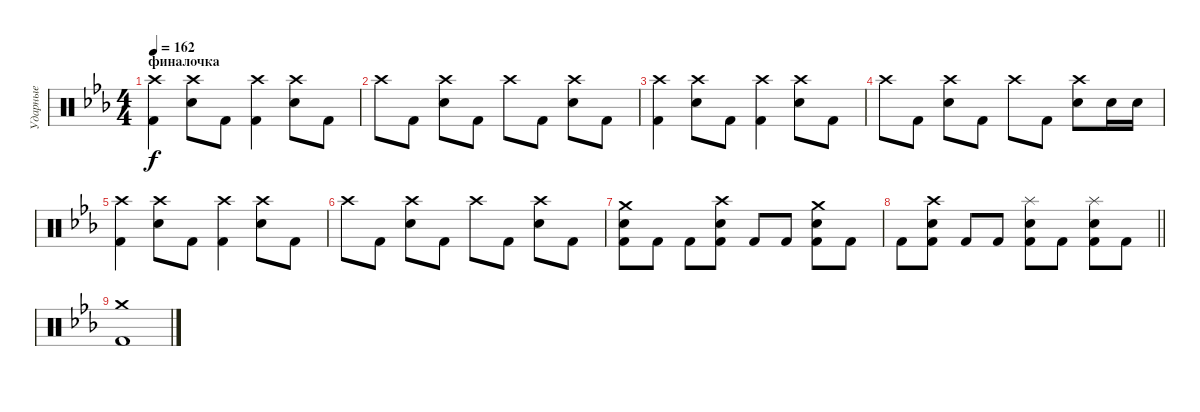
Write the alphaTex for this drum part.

\track ("Ударные" "Ударные") {instrument percussion}
\staff {score}
\articulation defaults
\ts (4 4)
\section ("" "финалочка")
\tempo 162
\clef neutral
\ks cminor
("Crash high (hit)" "Kick (hit) 2").4{dy f} ("Crash high (hit)" "Snare (hit) 2").8 "Kick (hit) 2".8 ("Crash high (hit)" "Kick (hit) 2").4 ("Crash high (hit)" "Snare (hit) 2").8 "Kick (hit) 2".8 |
"Crash high (hit)".8 "Kick (hit) 2".8 ("Crash high (hit)" "Snare (hit) 2").8 "Kick (hit) 2".8 "Crash high (hit)".8 "Kick (hit) 2".8 ("Crash high (hit)" "Snare (hit) 2").8 "Kick (hit) 2".8 |
("Crash high (hit)" "Kick (hit) 2").4 ("Crash high (hit)" "Snare (hit) 2").8 "Kick (hit) 2".8 ("Crash high (hit)" "Kick (hit) 2").4 ("Crash high (hit)" "Snare (hit) 2").8 "Kick (hit) 2".8 |
"Crash high (hit)".8 "Kick (hit) 2".8 ("Crash high (hit)" "Snare (hit) 2").8 "Kick (hit) 2".8 "Crash high (hit)".8 "Kick (hit) 2".8 ("Crash high (hit)" "Snare (hit) 2").8 "Snare (hit) 2".16 "Snare (hit) 2".16 |
("Crash high (hit)" "Kick (hit) 2").4 ("Crash high (hit)" "Snare (hit) 2").8 "Kick (hit) 2".8 ("Crash high (hit)" "Kick (hit) 2").4 ("Crash high (hit)" "Snare (hit) 2").8 "Kick (hit) 2".8 |
"Crash high (hit)".8 "Kick (hit) 2".8 ("Crash high (hit)" "Snare (hit) 2").8 "Kick (hit) 2".8 "Crash high (hit)".8 "Kick (hit) 2".8 ("Crash high (hit)" "Snare (hit) 2").8 "Kick (hit) 2".8 |
("Crash medium (hit)" "Snare (hit) 2" "Kick (hit) 2").8 "Kick (hit) 2".8 "Kick (hit) 2".8 ("Crash high (hit)" "Snare (hit) 2" "Kick (hit) 2").8 "Kick (hit) 2".8 "Kick (hit) 2".8 ("Crash medium (hit)" "Snare (hit) 2" "Kick (hit) 2").8 "Kick (hit) 2".8 |
\barLineRight lightlight "Kick (hit) 2".8
("Crash high (hit)" "Snare (hit) 2" "Kick (hit) 2").8 "Kick (hit) 2".8 "Kick (hit) 2".8 ("Splash (hit)" "Snare (hit) 2" "Kick (hit) 2").8 "Kick (hit) 2".8 ("Splash (hit)" "Snare (hit) 2" "Kick (hit) 2").8 "Kick (hit) 2".8 |
\section ("" "")
("Crash medium (hit)" "Kick (hit) 2").1
